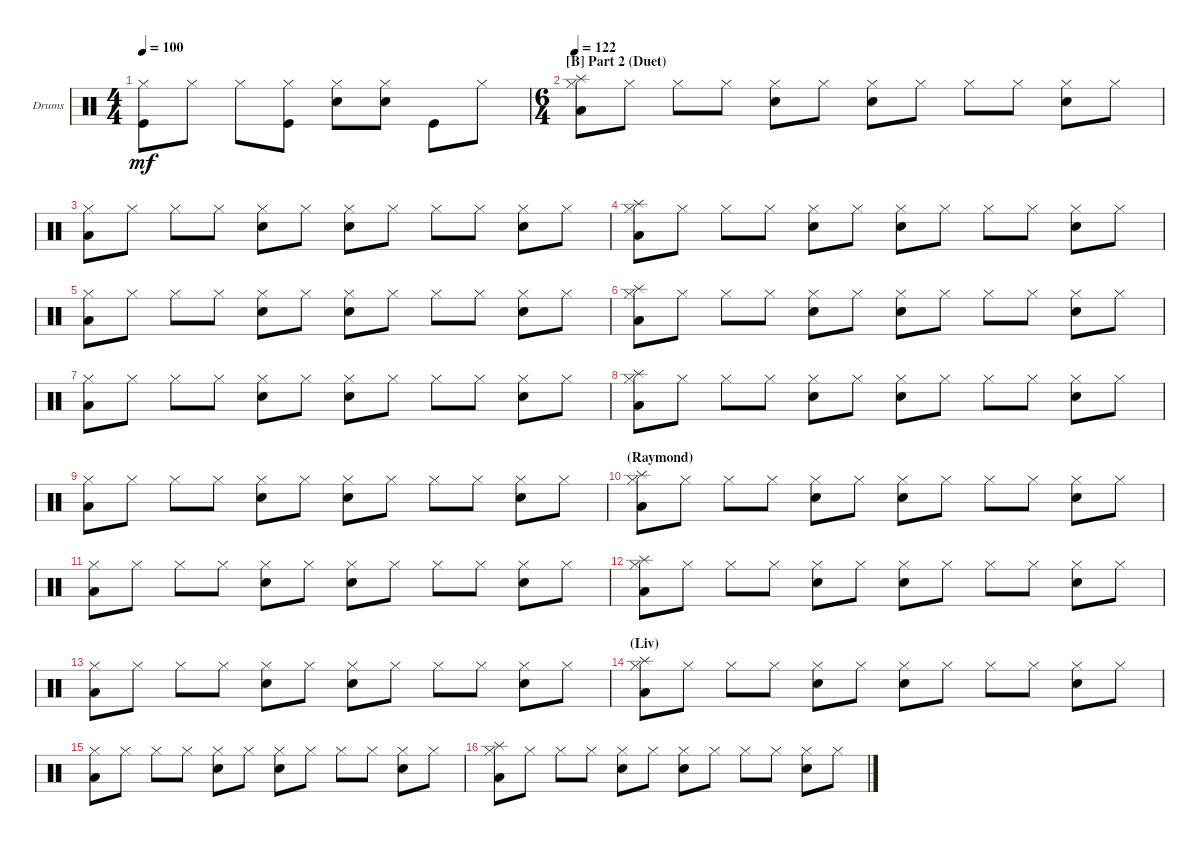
\bracketExtendMode groupsimilarinstruments
\firstSystemTrackNameOrientation horizontal
\otherSystemsTrackNameOrientation horizontal
\track ("Drumkit" "Drums") {instrument percussion}
\staff {score}
\articulation defaults
\ts (4 4)
\tempo 100
\clef neutral
\ks c
("Kick (hit)" "Hi-Hat (closed)").8{dy mf} "Hi-Hat (closed)".8 "Hi-Hat (closed)".8 ("Kick (hit)" "Hi-Hat (closed)").8 ("Snare (hit) 2" "Hi-Hat (closed)").8 ("Snare (hit) 2" "Hi-Hat (closed)").8 "Kick (hit)".8 "Hi-Hat (closed)".8 |
\ts (6 4)
\section ("B" "Part 2 (Duet)")
\tempo 122
("Hi-Hat (closed)" "Splash (hit)" "Low Tom (hit)").8 "Hi-Hat (closed)".8 "Hi-Hat (closed)".8 "Hi-Hat (closed)".8 ("Snare (hit) 2" "Hi-Hat (closed)").8 "Hi-Hat (closed)".8 ("Hi-Hat (closed)" "Snare (hit) 2").8 "Hi-Hat (closed)".8 "Hi-Hat (closed)".8 "Hi-Hat (closed)".8 ("Hi-Hat (closed)" "Snare (hit) 2").8 "Hi-Hat (closed)".8 |
\section ("" "")
("Hi-Hat (closed)" "Low Tom (hit)").8 "Hi-Hat (closed)".8 "Hi-Hat (closed)".8 "Hi-Hat (closed)".8 ("Snare (hit) 2" "Hi-Hat (closed)").8 "Hi-Hat (closed)".8 ("Hi-Hat (closed)" "Snare (hit) 2").8 "Hi-Hat (closed)".8 "Hi-Hat (closed)".8 "Hi-Hat (closed)".8 ("Hi-Hat (closed)" "Snare (hit) 2").8 "Hi-Hat (closed)".8 |
("Hi-Hat (closed)" "Splash (hit)" "Low Tom (hit)").8 "Hi-Hat (closed)".8 "Hi-Hat (closed)".8 "Hi-Hat (closed)".8 ("Snare (hit) 2" "Hi-Hat (closed)").8 "Hi-Hat (closed)".8 ("Hi-Hat (closed)" "Snare (hit) 2").8 "Hi-Hat (closed)".8 "Hi-Hat (closed)".8 "Hi-Hat (closed)".8 ("Hi-Hat (closed)" "Snare (hit) 2").8 "Hi-Hat (closed)".8 |
("Hi-Hat (closed)" "Low Tom (hit)").8 "Hi-Hat (closed)".8 "Hi-Hat (closed)".8 "Hi-Hat (closed)".8 ("Snare (hit) 2" "Hi-Hat (closed)").8 "Hi-Hat (closed)".8 ("Hi-Hat (closed)" "Snare (hit) 2").8 "Hi-Hat (closed)".8 "Hi-Hat (closed)".8 "Hi-Hat (closed)".8 ("Hi-Hat (closed)" "Snare (hit) 2").8 "Hi-Hat (closed)".8 |
("Hi-Hat (closed)" "Splash (hit)" "Low Tom (hit)").8 "Hi-Hat (closed)".8 "Hi-Hat (closed)".8 "Hi-Hat (closed)".8 ("Snare (hit) 2" "Hi-Hat (closed)").8 "Hi-Hat (closed)".8 ("Hi-Hat (closed)" "Snare (hit) 2").8 "Hi-Hat (closed)".8 "Hi-Hat (closed)".8 "Hi-Hat (closed)".8 ("Hi-Hat (closed)" "Snare (hit) 2").8 "Hi-Hat (closed)".8 |
("Hi-Hat (closed)" "Low Tom (hit)").8 "Hi-Hat (closed)".8 "Hi-Hat (closed)".8 "Hi-Hat (closed)".8 ("Snare (hit) 2" "Hi-Hat (closed)").8 "Hi-Hat (closed)".8 ("Hi-Hat (closed)" "Snare (hit) 2").8 "Hi-Hat (closed)".8 "Hi-Hat (closed)".8 "Hi-Hat (closed)".8 ("Hi-Hat (closed)" "Snare (hit) 2").8 "Hi-Hat (closed)".8 |
("Hi-Hat (closed)" "Splash (hit)" "Low Tom (hit)").8 "Hi-Hat (closed)".8 "Hi-Hat (closed)".8 "Hi-Hat (closed)".8 ("Snare (hit) 2" "Hi-Hat (closed)").8 "Hi-Hat (closed)".8 ("Hi-Hat (closed)" "Snare (hit) 2").8 "Hi-Hat (closed)".8 "Hi-Hat (closed)".8 "Hi-Hat (closed)".8 ("Hi-Hat (closed)" "Snare (hit) 2").8 "Hi-Hat (closed)".8 |
("Hi-Hat (closed)" "Low Tom (hit)").8 "Hi-Hat (closed)".8 "Hi-Hat (closed)".8 "Hi-Hat (closed)".8 ("Snare (hit) 2" "Hi-Hat (closed)").8 "Hi-Hat (closed)".8 ("Hi-Hat (closed)" "Snare (hit) 2").8 "Hi-Hat (closed)".8 "Hi-Hat (closed)".8 "Hi-Hat (closed)".8 ("Hi-Hat (closed)" "Snare (hit) 2").8 "Hi-Hat (closed)".8 |
\section ("" "(Raymond)")
("Hi-Hat (closed)" "Splash (hit)" "Low Tom (hit)").8 "Hi-Hat (closed)".8 "Hi-Hat (closed)".8 "Hi-Hat (closed)".8 ("Snare (hit) 2" "Hi-Hat (closed)").8 "Hi-Hat (closed)".8 ("Hi-Hat (closed)" "Snare (hit) 2").8 "Hi-Hat (closed)".8 "Hi-Hat (closed)".8 "Hi-Hat (closed)".8 ("Hi-Hat (closed)" "Snare (hit) 2").8 "Hi-Hat (closed)".8 |
("Hi-Hat (closed)" "Low Tom (hit)").8 "Hi-Hat (closed)".8 "Hi-Hat (closed)".8 "Hi-Hat (closed)".8 ("Snare (hit) 2" "Hi-Hat (closed)").8 "Hi-Hat (closed)".8 ("Hi-Hat (closed)" "Snare (hit) 2").8 "Hi-Hat (closed)".8 "Hi-Hat (closed)".8 "Hi-Hat (closed)".8 ("Hi-Hat (closed)" "Snare (hit) 2").8 "Hi-Hat (closed)".8 |
("Hi-Hat (closed)" "Splash (hit)" "Low Tom (hit)").8 "Hi-Hat (closed)".8 "Hi-Hat (closed)".8 "Hi-Hat (closed)".8 ("Snare (hit) 2" "Hi-Hat (closed)").8 "Hi-Hat (closed)".8 ("Hi-Hat (closed)" "Snare (hit) 2").8 "Hi-Hat (closed)".8 "Hi-Hat (closed)".8 "Hi-Hat (closed)".8 ("Hi-Hat (closed)" "Snare (hit) 2").8 "Hi-Hat (closed)".8 |
("Hi-Hat (closed)" "Low Tom (hit)").8 "Hi-Hat (closed)".8 "Hi-Hat (closed)".8 "Hi-Hat (closed)".8 ("Snare (hit) 2" "Hi-Hat (closed)").8 "Hi-Hat (closed)".8 ("Hi-Hat (closed)" "Snare (hit) 2").8 "Hi-Hat (closed)".8 "Hi-Hat (closed)".8 "Hi-Hat (closed)".8 ("Hi-Hat (closed)" "Snare (hit) 2").8 "Hi-Hat (closed)".8 |
\section ("" "(Liv)")
("Hi-Hat (closed)" "Splash (hit)" "Low Tom (hit)").8 "Hi-Hat (closed)".8 "Hi-Hat (closed)".8 "Hi-Hat (closed)".8 ("Snare (hit) 2" "Hi-Hat (closed)").8 "Hi-Hat (closed)".8 ("Hi-Hat (closed)" "Snare (hit) 2").8 "Hi-Hat (closed)".8 "Hi-Hat (closed)".8 "Hi-Hat (closed)".8 ("Hi-Hat (closed)" "Snare (hit) 2").8 "Hi-Hat (closed)".8 |
("Hi-Hat (closed)" "Low Tom (hit)").8 "Hi-Hat (closed)".8 "Hi-Hat (closed)".8 "Hi-Hat (closed)".8 ("Snare (hit) 2" "Hi-Hat (closed)").8 "Hi-Hat (closed)".8 ("Hi-Hat (closed)" "Snare (hit) 2").8 "Hi-Hat (closed)".8 "Hi-Hat (closed)".8 "Hi-Hat (closed)".8 ("Hi-Hat (closed)" "Snare (hit) 2").8 "Hi-Hat (closed)".8 |
("Hi-Hat (closed)" "Splash (hit)" "Low Tom (hit)").8 "Hi-Hat (closed)".8 "Hi-Hat (closed)".8 "Hi-Hat (closed)".8 ("Snare (hit) 2" "Hi-Hat (closed)").8 "Hi-Hat (closed)".8 ("Hi-Hat (closed)" "Snare (hit) 2").8 "Hi-Hat (closed)".8 "Hi-Hat (closed)".8 "Hi-Hat (closed)".8 ("Hi-Hat (closed)" "Snare (hit) 2").8 "Hi-Hat (closed)".8
